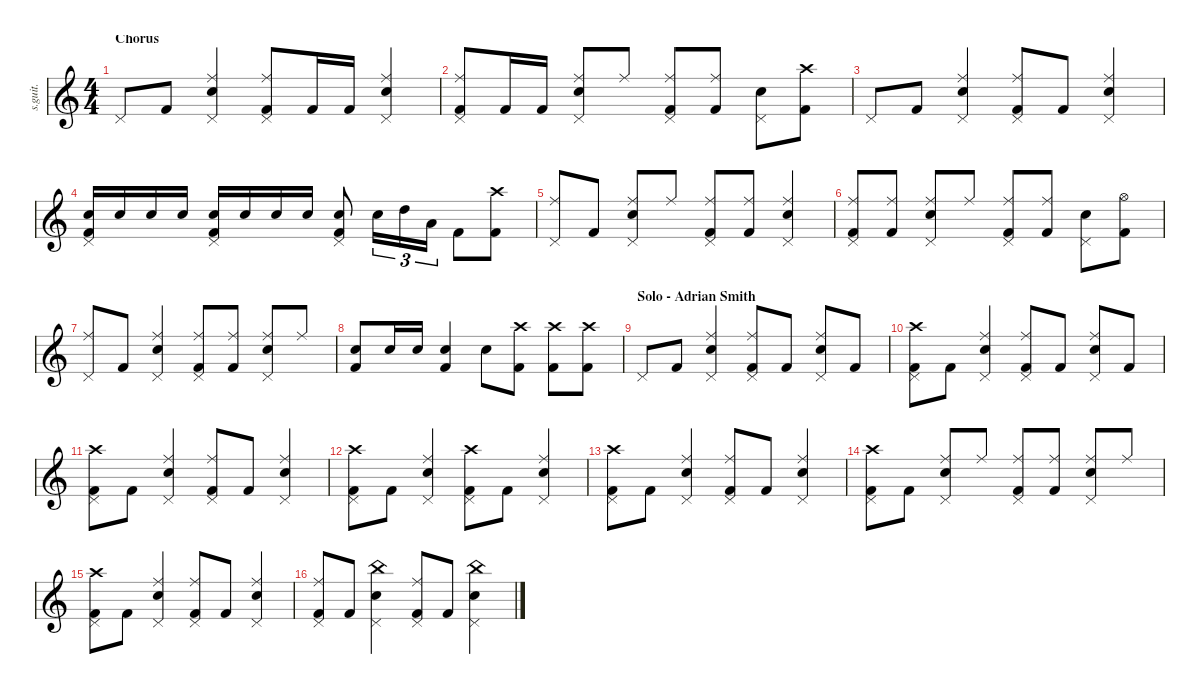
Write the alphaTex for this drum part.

\defaultSystemsLayout 4
\hideDynamics
\bracketExtendMode nobrackets
\track ("Nicko McBrain" "s.guit.") {instrument percussion}
\staff {score}
\articulation defaults
\ts (4 4)
\section ("" "Chorus")
\tempo (162 hide)
\clef g2
\ks c "Pedal Hi-Hat (hit)".8{dy mf} "Kick (hit) 2".8
("Snare (hit) 2" "Ride (middle)" "Pedal Hi-Hat (hit)").4 ("Pedal Hi-Hat (hit)" "Kick (hit) 2" "Ride (middle)").8 "Kick (hit) 2".16 "Kick (hit) 2".16 ("Pedal Hi-Hat (hit)" "Snare (hit) 2" "Ride (middle)").4 |
("Pedal Hi-Hat (hit)" "Kick (hit) 2" "Ride (middle)").8 "Kick (hit) 2".16 "Kick (hit) 2".16 ("Pedal Hi-Hat (hit)" "Snare (hit) 2" "Ride (middle)").8 "Ride (middle)".8 ("Pedal Hi-Hat (hit)" "Kick (hit) 2" "Ride (middle)").8 ("Kick (hit) 2" "Ride (middle)").8 ("Snare (hit) 2" "Pedal Hi-Hat (hit)").8 ("Crash high (hit)" "Kick (hit) 2").8 |
"Pedal Hi-Hat (hit)".8 "Kick (hit) 2".8 ("Snare (hit) 2" "Ride (middle)" "Pedal Hi-Hat (hit)").4 ("Pedal Hi-Hat (hit)" "Kick (hit) 2" "Ride (middle)").8 "Kick (hit) 2".8 ("Pedal Hi-Hat (hit)" "Snare (hit) 2" "Ride (middle)").4 |
("Pedal Hi-Hat (hit)" "Snare (hit) 2" "Kick (hit) 2").16 "Snare (hit) 2".16 "Snare (hit) 2".16 "Snare (hit) 2".16 ("Pedal Hi-Hat (hit)" "Snare (hit) 2" "Kick (hit) 2").16 "Snare (hit) 2".16 "Snare (hit) 2".16 "Snare (hit) 2".16 ("Kick (hit) 2" "Pedal Hi-Hat (hit)" "Snare (hit) 2").8 "Snare (hit) 2".16{tu (3 2)} "High Tom (hit)".16{tu (3 2)} "Low Tom (hit)".16{tu (3 2)} "Kick (hit) 2".8 ("Kick (hit) 2" "Crash high (hit)").8 |
("Pedal Hi-Hat (hit)" "Ride (middle)").8 "Kick (hit) 2".8 ("Pedal Hi-Hat (hit)" "Snare (hit) 2" "Ride (middle)").8 "Ride (middle)".8 ("Ride (middle)" "Kick (hit) 2" "Pedal Hi-Hat (hit)").8 ("Ride (middle)" "Kick (hit) 2").8 ("Snare (hit) 2" "Pedal Hi-Hat (hit)" "Ride (middle)").4 |
("Ride (middle)" "Kick (hit) 2" "Pedal Hi-Hat (hit)").8 ("Ride (middle)" "Kick (hit) 2").8 ("Ride (middle)" "Pedal Hi-Hat (hit)" "Snare (hit) 2").8 "Ride (middle)".8 ("Ride (middle)" "Kick (hit) 2" "Pedal Hi-Hat (hit)").8 ("Ride (middle)" "Kick (hit) 2").8 ("Pedal Hi-Hat (hit)" "Snare (hit) 2").8 ("Hi-Hat (open)" "Kick (hit) 2").8 |
("Pedal Hi-Hat (hit)" "Ride (middle)").8 "Kick (hit) 2".8 ("Pedal Hi-Hat (hit)" "Snare (hit) 2" "Ride (middle)").4 ("Ride (middle)" "Kick (hit) 2" "Pedal Hi-Hat (hit)").8 ("Ride (middle)" "Kick (hit) 2").8 ("Snare (hit) 2" "Pedal Hi-Hat (hit)" "Ride (middle)").8 "Ride (middle)".8 |
("Kick (hit) 2" "Snare (hit) 2").8 "Snare (hit) 2".16 "Snare (hit) 2".16 ("Kick (hit) 2" "Snare (hit) 2").4 "Snare (hit) 2".8 ("Kick (hit) 2" "Crash high (hit)").8 ("Crash high (hit)" "Kick (hit) 2").8 ("Crash high (hit)" "Kick (hit) 2").8 |
\section ("" "Solo - Adrian Smith")
"Pedal Hi-Hat (hit)".8 "Kick (hit) 2".8 ("Snare (hit) 2" "Pedal Hi-Hat (hit)" "Ride (middle)").4 ("Kick (hit) 2" "Pedal Hi-Hat (hit)" "Ride (middle)").8 "Kick (hit) 2".8 ("Pedal Hi-Hat (hit)" "Ride (middle)" "Snare (hit) 2").8 "Kick (hit) 2".8 |
("Pedal Hi-Hat (hit)" "Crash high (hit)" "Kick (hit) 2").8 "Kick (hit) 2".8 ("Snare (hit) 2" "Pedal Hi-Hat (hit)" "Ride (middle)").4 ("Kick (hit) 2" "Pedal Hi-Hat (hit)" "Ride (middle)").8 "Kick (hit) 2".8 ("Pedal Hi-Hat (hit)" "Ride (middle)" "Snare (hit) 2").8 "Kick (hit) 2".8 |
("Pedal Hi-Hat (hit)" "Crash high (hit)" "Kick (hit) 2").8 "Kick (hit) 2".8 ("Snare (hit) 2" "Pedal Hi-Hat (hit)" "Ride (middle)").4 ("Pedal Hi-Hat (hit)" "Kick (hit) 2" "Ride (middle)").8 "Kick (hit) 2".8 ("Snare (hit) 2" "Pedal Hi-Hat (hit)" "Ride (middle)").4 |
("Pedal Hi-Hat (hit)" "Crash high (hit)" "Kick (hit) 2").8 "Kick (hit) 2".8 ("Snare (hit) 2" "Pedal Hi-Hat (hit)" "Ride (middle)").4 ("Pedal Hi-Hat (hit)" "Crash high (hit)" "Kick (hit) 2").8 "Kick (hit) 2".8 ("Snare (hit) 2" "Pedal Hi-Hat (hit)" "Ride (middle)").4 |
("Pedal Hi-Hat (hit)" "Crash high (hit)" "Kick (hit) 2").8 "Kick (hit) 2".8 ("Snare (hit) 2" "Pedal Hi-Hat (hit)" "Ride (middle)").4 ("Pedal Hi-Hat (hit)" "Kick (hit) 2" "Ride (middle)").8 "Kick (hit) 2".8 ("Snare (hit) 2" "Pedal Hi-Hat (hit)" "Ride (middle)").4 |
("Pedal Hi-Hat (hit)" "Crash high (hit)" "Kick (hit) 2").8 "Kick (hit) 2".8 ("Snare (hit) 2" "Pedal Hi-Hat (hit)" "Ride (middle)").8 "Ride (middle)".8 ("Ride (middle)" "Kick (hit) 2" "Pedal Hi-Hat (hit)").8 ("Ride (middle)" "Kick (hit) 2").8 ("Snare (hit) 2" "Pedal Hi-Hat (hit)" "Ride (middle)").8 "Ride (middle)".8 |
("Pedal Hi-Hat (hit)" "Crash high (hit)" "Kick (hit) 2").8 "Kick (hit) 2".8 ("Snare (hit) 2" "Pedal Hi-Hat (hit)" "Ride (middle)").4 ("Pedal Hi-Hat (hit)" "Kick (hit) 2" "Ride (middle)").8 "Kick (hit) 2".8 ("Snare (hit) 2" "Pedal Hi-Hat (hit)" "Ride (middle)").4 |
("Pedal Hi-Hat (hit)" "Kick (hit) 2" "Ride (middle)").8 "Kick (hit) 2".8 ("Snare (hit) 2" "Pedal Hi-Hat (hit)" "China (hit)").4 ("Pedal Hi-Hat (hit)" "Kick (hit) 2" "Ride (middle)").8 "Kick (hit) 2".8 ("Snare (hit) 2" "Pedal Hi-Hat (hit)" "China (hit)").4
